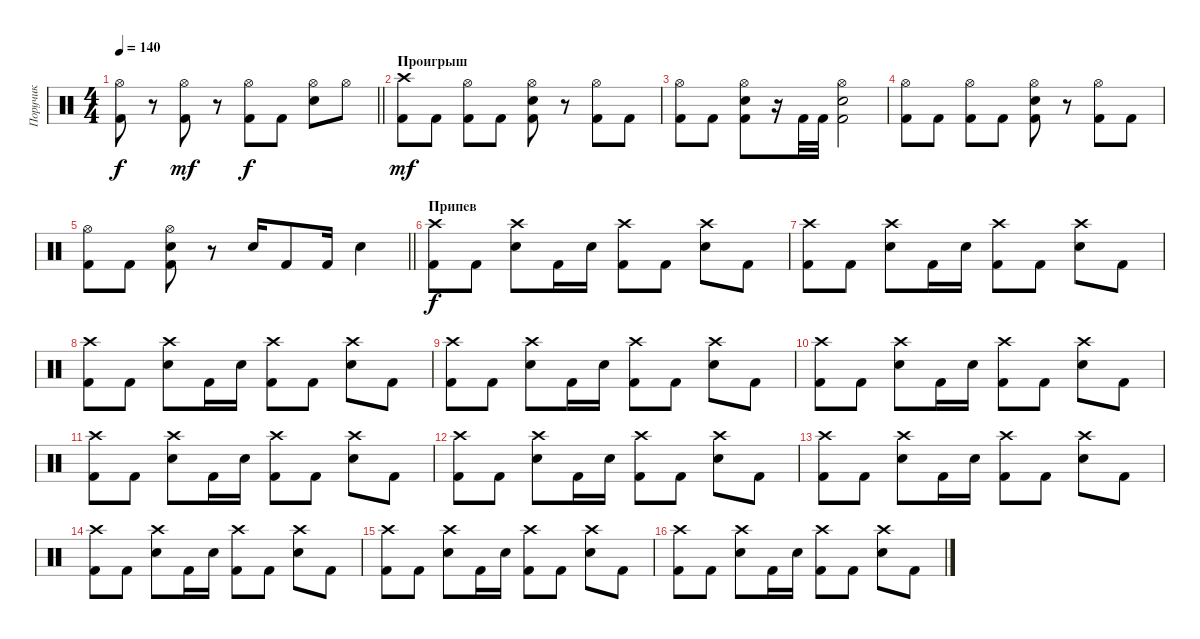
\track ("Поручик" "Поручик") {instrument percussion}
\staff {score}
\articulation defaults
\ts (4 4)
\tempo 140
\clef neutral
\barLineRight lightlight
\ks c
("Hi-Hat (open)" "Kick (hit) 2").8{dy f} r.8 ("Hi-Hat (open)" "Kick (hit) 2").8{dy mf} r.8 ("Hi-Hat (open)" "Kick (hit) 2").8{dy f} "Kick (hit) 2".8 ("Hi-Hat (open)" "Electric Snare (hit)").8 "Hi-Hat (open)".8 |
\section ("" "Проигрыш")
("Crash high (hit)" "Kick (hit) 2").8{dy mf} "Kick (hit) 2".8 ("Hi-Hat (open)" "Kick (hit) 2").8 "Kick (hit) 2".8 ("Hi-Hat (open)" "Electric Snare (hit)" "Kick (hit) 2").8 r.8 ("Hi-Hat (open)" "Kick (hit) 2").8 "Kick (hit) 2".8 |
("Hi-Hat (open)" "Kick (hit) 2").8 "Kick (hit) 2".8 ("Hi-Hat (open)" "Electric Snare (hit)" "Kick (hit) 2").8 r.16 "Kick (hit) 2".32 "Kick (hit) 2".32 ("Hi-Hat (open)" "Electric Snare (hit)" "Kick (hit) 2").2 |
("Hi-Hat (open)" "Kick (hit) 2").8 "Kick (hit) 2".8 ("Hi-Hat (open)" "Kick (hit) 2").8 "Kick (hit) 2".8 ("Hi-Hat (open)" "Electric Snare (hit)" "Kick (hit) 2").8 r.8 ("Hi-Hat (open)" "Kick (hit) 2").8 "Kick (hit) 2".8 |
\barLineRight lightlight
("Hi-Hat (open)" "Kick (hit) 2").8 "Kick (hit) 2".8 ("Hi-Hat (open)" "Electric Snare (hit)" "Kick (hit) 2").8 r.8 "Electric Snare (hit)".16 "Kick (hit) 2".8 "Kick (hit) 2".16 "Electric Snare (hit)".4 |
\section ("" "Припев")
("Crash high (hit)" "Kick (hit) 2").8{dy f} "Kick (hit) 2".8 ("Crash high (hit)" "Electric Snare (hit)").8 "Kick (hit) 2".16 "Electric Snare (hit)".16 ("Crash high (hit)" "Kick (hit) 2").8 "Kick (hit) 2".8 ("Crash high (hit)" "Electric Snare (hit)").8 "Kick (hit) 2".8 |
("Crash high (hit)" "Kick (hit) 2").8 "Kick (hit) 2".8 ("Crash high (hit)" "Electric Snare (hit)").8 "Kick (hit) 2".16 "Electric Snare (hit)".16 ("Crash high (hit)" "Kick (hit) 2").8 "Kick (hit) 2".8 ("Crash high (hit)" "Electric Snare (hit)").8 "Kick (hit) 2".8 |
("Crash high (hit)" "Kick (hit) 2").8 "Kick (hit) 2".8 ("Crash high (hit)" "Electric Snare (hit)").8 "Kick (hit) 2".16 "Electric Snare (hit)".16 ("Crash high (hit)" "Kick (hit) 2").8 "Kick (hit) 2".8 ("Crash high (hit)" "Electric Snare (hit)").8 "Kick (hit) 2".8 |
("Crash high (hit)" "Kick (hit) 2").8 "Kick (hit) 2".8 ("Crash high (hit)" "Electric Snare (hit)").8 "Kick (hit) 2".16 "Electric Snare (hit)".16 ("Crash high (hit)" "Kick (hit) 2").8 "Kick (hit) 2".8 ("Crash high (hit)" "Electric Snare (hit)").8 "Kick (hit) 2".8 |
("Crash high (hit)" "Kick (hit) 2").8 "Kick (hit) 2".8 ("Crash high (hit)" "Electric Snare (hit)").8 "Kick (hit) 2".16 "Electric Snare (hit)".16 ("Crash high (hit)" "Kick (hit) 2").8 "Kick (hit) 2".8 ("Crash high (hit)" "Electric Snare (hit)").8 "Kick (hit) 2".8 |
("Crash high (hit)" "Kick (hit) 2").8 "Kick (hit) 2".8 ("Crash high (hit)" "Electric Snare (hit)").8 "Kick (hit) 2".16 "Electric Snare (hit)".16 ("Crash high (hit)" "Kick (hit) 2").8 "Kick (hit) 2".8 ("Crash high (hit)" "Electric Snare (hit)").8 "Kick (hit) 2".8 |
("Crash high (hit)" "Kick (hit) 2").8 "Kick (hit) 2".8 ("Crash high (hit)" "Electric Snare (hit)").8 "Kick (hit) 2".16 "Electric Snare (hit)".16 ("Crash high (hit)" "Kick (hit) 2").8 "Kick (hit) 2".8 ("Crash high (hit)" "Electric Snare (hit)").8 "Kick (hit) 2".8 |
("Crash high (hit)" "Kick (hit) 2").8 "Kick (hit) 2".8 ("Crash high (hit)" "Electric Snare (hit)").8 "Kick (hit) 2".16 "Electric Snare (hit)".16 ("Crash high (hit)" "Kick (hit) 2").8 "Kick (hit) 2".8 ("Crash high (hit)" "Electric Snare (hit)").8 "Kick (hit) 2".8 |
("Crash high (hit)" "Kick (hit) 2").8 "Kick (hit) 2".8 ("Crash high (hit)" "Electric Snare (hit)").8 "Kick (hit) 2".16 "Electric Snare (hit)".16 ("Crash high (hit)" "Kick (hit) 2").8 "Kick (hit) 2".8 ("Crash high (hit)" "Electric Snare (hit)").8 "Kick (hit) 2".8 |
("Crash high (hit)" "Kick (hit) 2").8 "Kick (hit) 2".8 ("Crash high (hit)" "Electric Snare (hit)").8 "Kick (hit) 2".16 "Electric Snare (hit)".16 ("Crash high (hit)" "Kick (hit) 2").8 "Kick (hit) 2".8 ("Crash high (hit)" "Electric Snare (hit)").8 "Kick (hit) 2".8 |
("Crash high (hit)" "Kick (hit) 2").8 "Kick (hit) 2".8 ("Crash high (hit)" "Electric Snare (hit)").8 "Kick (hit) 2".16 "Electric Snare (hit)".16 ("Crash high (hit)" "Kick (hit) 2").8 "Kick (hit) 2".8 ("Crash high (hit)" "Electric Snare (hit)").8 "Kick (hit) 2".8
